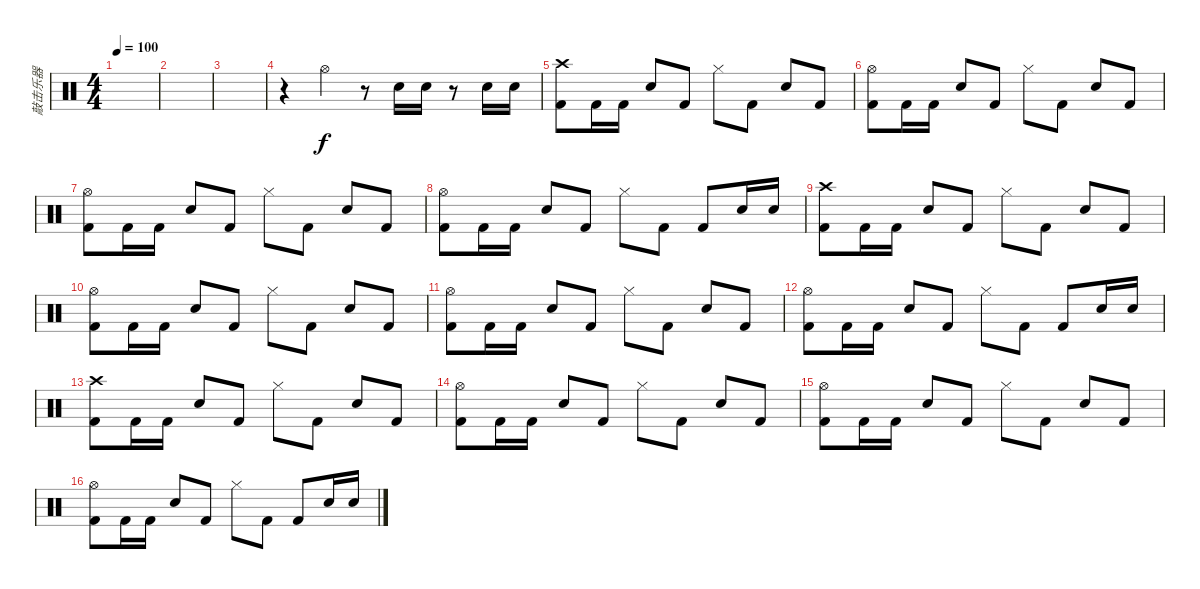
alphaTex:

\track ("敲击乐器" "敲击乐器") {instrument percussion}
\staff {score}
\articulation defaults
\ts (4 4)
\tempo 100
\clef neutral
\ks c
|
|
|
r.4 "Hi-Hat (open)".4 r.8 "Metronome (bell)".16 "Metronome (bell)".16 r.8 "Metronome (bell)".16 "Metronome (bell)".16 |
("Kick (hit) 2" "Crash high (hit)").8 "Kick (hit) 2".16 "Kick (hit) 2".16 "Metronome (bell)".8 "Kick (hit) 2".8 "Hi-Hat (closed)".8 "Kick (hit) 2".8 "Metronome (bell)".8 "Kick (hit) 2".8 |
("Kick (hit) 2" "Hi-Hat (open)").8 "Kick (hit) 2".16 "Kick (hit) 2".16 "Metronome (bell)".8 "Kick (hit) 2".8 "Hi-Hat (closed)".8 "Kick (hit) 2".8 "Metronome (bell)".8 "Kick (hit) 2".8 |
("Kick (hit) 2" "Hi-Hat (open)").8 "Kick (hit) 2".16 "Kick (hit) 2".16 "Metronome (bell)".8 "Kick (hit) 2".8 "Hi-Hat (closed)".8 "Kick (hit) 2".8 "Metronome (bell)".8 "Kick (hit) 2".8 |
("Kick (hit) 2" "Hi-Hat (open)").8 "Kick (hit) 2".16 "Kick (hit) 2".16 "Metronome (bell)".8 "Kick (hit) 2".8 "Hi-Hat (closed)".8 "Kick (hit) 2".8 "Kick (hit) 2".8 "Metronome (bell)".16 "Metronome (bell)".16 |
("Kick (hit) 2" "Crash high (hit)").8 "Kick (hit) 2".16 "Kick (hit) 2".16 "Metronome (bell)".8 "Kick (hit) 2".8 "Hi-Hat (closed)".8 "Kick (hit) 2".8 "Metronome (bell)".8 "Kick (hit) 2".8 |
("Kick (hit) 2" "Hi-Hat (open)").8 "Kick (hit) 2".16 "Kick (hit) 2".16 "Metronome (bell)".8 "Kick (hit) 2".8 "Hi-Hat (closed)".8 "Kick (hit) 2".8 "Metronome (bell)".8 "Kick (hit) 2".8 |
("Kick (hit) 2" "Hi-Hat (open)").8 "Kick (hit) 2".16 "Kick (hit) 2".16 "Metronome (bell)".8 "Kick (hit) 2".8 "Hi-Hat (closed)".8 "Kick (hit) 2".8 "Metronome (bell)".8 "Kick (hit) 2".8 |
("Kick (hit) 2" "Hi-Hat (open)").8 "Kick (hit) 2".16 "Kick (hit) 2".16 "Metronome (bell)".8 "Kick (hit) 2".8 "Hi-Hat (closed)".8 "Kick (hit) 2".8 "Kick (hit) 2".8 "Metronome (bell)".16 "Metronome (bell)".16 |
("Kick (hit) 2" "Crash high (hit)").8 "Kick (hit) 2".16 "Kick (hit) 2".16 "Metronome (bell)".8 "Kick (hit) 2".8 "Hi-Hat (closed)".8 "Kick (hit) 2".8 "Metronome (bell)".8 "Kick (hit) 2".8 |
("Kick (hit) 2" "Hi-Hat (open)").8 "Kick (hit) 2".16 "Kick (hit) 2".16 "Metronome (bell)".8 "Kick (hit) 2".8 "Hi-Hat (closed)".8 "Kick (hit) 2".8 "Metronome (bell)".8 "Kick (hit) 2".8 |
("Kick (hit) 2" "Hi-Hat (open)").8 "Kick (hit) 2".16 "Kick (hit) 2".16 "Metronome (bell)".8 "Kick (hit) 2".8 "Hi-Hat (closed)".8 "Kick (hit) 2".8 "Metronome (bell)".8 "Kick (hit) 2".8 |
("Kick (hit) 2" "Hi-Hat (open)").8 "Kick (hit) 2".16 "Kick (hit) 2".16 "Metronome (bell)".8 "Kick (hit) 2".8 "Hi-Hat (closed)".8 "Kick (hit) 2".8 "Kick (hit) 2".8 "Metronome (bell)".16 "Metronome (bell)".16
